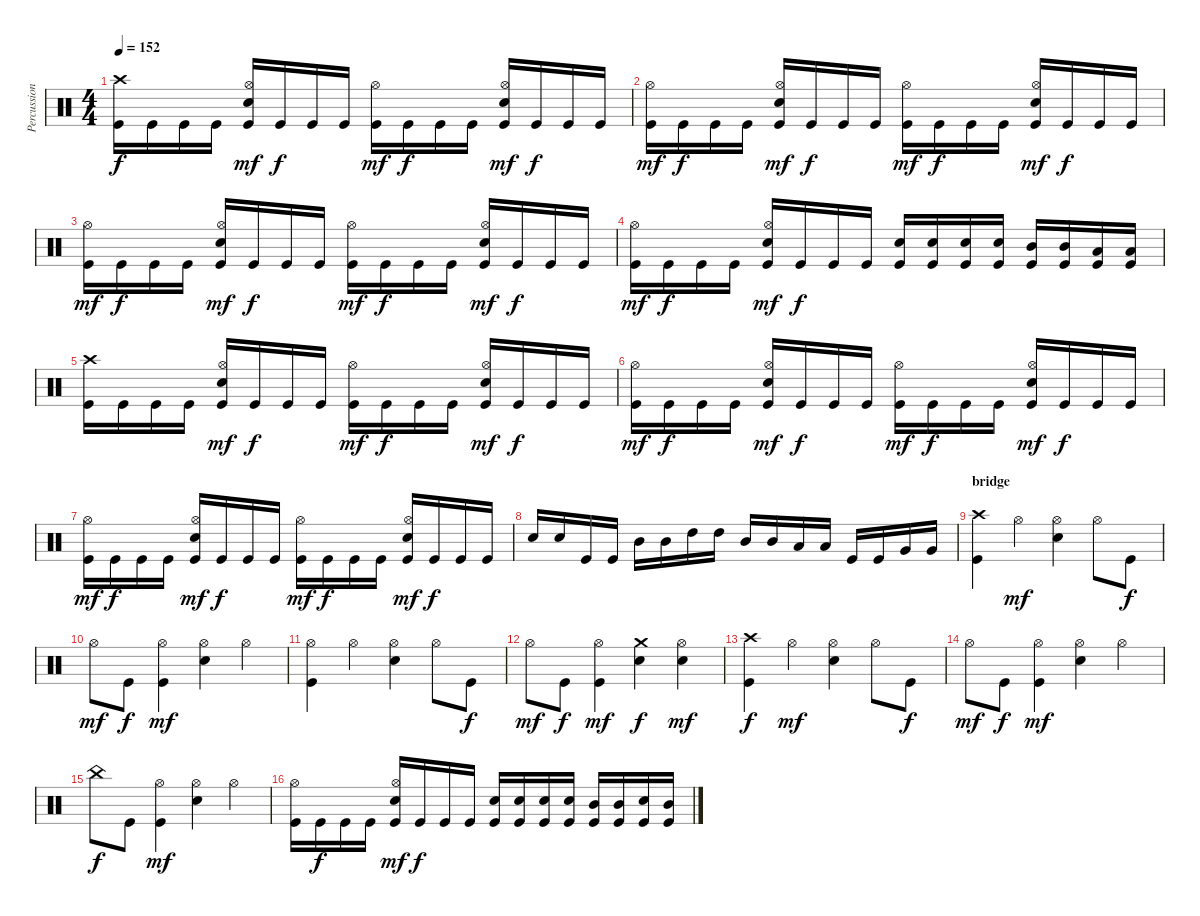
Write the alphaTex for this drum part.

\track ("Percussion" "Percussion") {instrument percussion}
\staff {score}
\articulation defaults
\ts (4 4)
\tempo 152
\clef neutral
\ks c
("Crash high (hit)" "Kick (hit)").16{dy f} "Kick (hit)".16 "Kick (hit)".16 "Kick (hit)".16 ("Hi-Hat (open)" "Snare (hit) 2" "Kick (hit)").16{dy mf} "Kick (hit)".16{dy f} "Kick (hit)".16 "Kick (hit)".16 ("Hi-Hat (open)" "Kick (hit)").16{dy mf} "Kick (hit)".16{dy f} "Kick (hit)".16 "Kick (hit)".16 ("Hi-Hat (open)" "Snare (hit) 2" "Kick (hit)").16{dy mf} "Kick (hit)".16{dy f} "Kick (hit)".16 "Kick (hit)".16 |
("Hi-Hat (open)" "Kick (hit)").16{dy mf} "Kick (hit)".16{dy f} "Kick (hit)".16 "Kick (hit)".16 ("Hi-Hat (open)" "Snare (hit) 2" "Kick (hit)").16{dy mf} "Kick (hit)".16{dy f} "Kick (hit)".16 "Kick (hit)".16 ("Hi-Hat (open)" "Kick (hit)").16{dy mf} "Kick (hit)".16{dy f} "Kick (hit)".16 "Kick (hit)".16 ("Hi-Hat (open)" "Snare (hit) 2" "Kick (hit)").16{dy mf} "Kick (hit)".16{dy f} "Kick (hit)".16 "Kick (hit)".16 |
("Hi-Hat (open)" "Kick (hit)").16{dy mf} "Kick (hit)".16{dy f} "Kick (hit)".16 "Kick (hit)".16 ("Hi-Hat (open)" "Snare (hit) 2" "Kick (hit)").16{dy mf} "Kick (hit)".16{dy f} "Kick (hit)".16 "Kick (hit)".16 ("Hi-Hat (open)" "Kick (hit)").16{dy mf} "Kick (hit)".16{dy f} "Kick (hit)".16 "Kick (hit)".16 ("Hi-Hat (open)" "Snare (hit) 2" "Kick (hit)").16{dy mf} "Kick (hit)".16{dy f} "Kick (hit)".16 "Kick (hit)".16 |
("Hi-Hat (open)" "Kick (hit)").16{dy mf} "Kick (hit)".16{dy f} "Kick (hit)".16 "Kick (hit)".16 ("Hi-Hat (open)" "Snare (hit) 2" "Kick (hit)").16{dy mf} "Kick (hit)".16{dy f} "Kick (hit)".16 "Kick (hit)".16 ("Snare (hit) 2" "Kick (hit)").16 ("Snare (hit) 2" "Kick (hit)").16 ("Snare (hit) 2" "Kick (hit)").16 ("Snare (hit) 2" "Kick (hit)").16 ("Mid Tom (hit)" "Kick (hit)").16 ("Mid Tom (hit)" "Kick (hit)").16 ("Low Tom (hit)" "Kick (hit)").16 ("Low Tom (hit)" "Kick (hit)").16 |
("Crash high (hit)" "Kick (hit)").16 "Kick (hit)".16 "Kick (hit)".16 "Kick (hit)".16 ("Hi-Hat (open)" "Snare (hit) 2" "Kick (hit)").16{dy mf} "Kick (hit)".16{dy f} "Kick (hit)".16 "Kick (hit)".16 ("Hi-Hat (open)" "Kick (hit)").16{dy mf} "Kick (hit)".16{dy f} "Kick (hit)".16 "Kick (hit)".16 ("Hi-Hat (open)" "Snare (hit) 2" "Kick (hit)").16{dy mf} "Kick (hit)".16{dy f} "Kick (hit)".16 "Kick (hit)".16 |
("Hi-Hat (open)" "Kick (hit)").16{dy mf} "Kick (hit)".16{dy f} "Kick (hit)".16 "Kick (hit)".16 ("Hi-Hat (open)" "Snare (hit) 2" "Kick (hit)").16{dy mf} "Kick (hit)".16{dy f} "Kick (hit)".16 "Kick (hit)".16 ("Hi-Hat (open)" "Kick (hit)").16{dy mf} "Kick (hit)".16{dy f} "Kick (hit)".16 "Kick (hit)".16 ("Hi-Hat (open)" "Snare (hit) 2" "Kick (hit)").16{dy mf} "Kick (hit)".16{dy f} "Kick (hit)".16 "Kick (hit)".16 |
("Hi-Hat (open)" "Kick (hit)").16{dy mf} "Kick (hit)".16{dy f} "Kick (hit)".16 "Kick (hit)".16 ("Hi-Hat (open)" "Snare (hit) 2" "Kick (hit)").16{dy mf} "Kick (hit)".16{dy f} "Kick (hit)".16 "Kick (hit)".16 ("Hi-Hat (open)" "Kick (hit)").16{dy mf} "Kick (hit)".16{dy f} "Kick (hit)".16 "Kick (hit)".16 ("Hi-Hat (open)" "Snare (hit) 2" "Kick (hit)").16{dy mf} "Kick (hit)".16{dy f} "Kick (hit)".16 "Kick (hit)".16 |
"Snare (hit) 2".16 "Snare (hit) 2".16 "Kick (hit)".16 "Kick (hit)".16 "Mid Tom (hit)".16 "Mid Tom (hit)".16 "High Tom (hit)".16 "High Tom (hit)".16 "Mid Tom (hit)".16 "Mid Tom (hit)".16 "Low Tom (hit)".16 "Low Tom (hit)".16 "Kick (hit)".16 "Kick (hit)".16 "Very Low Tom (hit)".16 "Very Low Tom (hit)".16 |
\section ("" "bridge")
("Crash high (hit)" "Kick (hit)").4 "Hi-Hat (open)".4{dy mf} ("Hi-Hat (open)" "Snare (hit) 2").4 "Hi-Hat (open)".8 "Kick (hit)".8{dy f} |
"Hi-Hat (open)".8{dy mf} "Kick (hit)".8{dy f} ("Hi-Hat (open)" "Kick (hit)").4{dy mf} ("Hi-Hat (open)" "Snare (hit) 2").4 "Hi-Hat (open)".4 |
("Hi-Hat (open)" "Kick (hit)").4 "Hi-Hat (open)".4 ("Hi-Hat (open)" "Snare (hit) 2").4 "Hi-Hat (open)".8 "Kick (hit)".8{dy f} |
"Hi-Hat (open)".8{dy mf} "Kick (hit)".8{dy f} ("Hi-Hat (open)" "Kick (hit)").4{dy mf} ("Crash medium (hit)" "Snare (hit) 2").4{dy f} ("Hi-Hat (open)" "Snare (hit) 2").4{dy mf} |
("Crash high (hit)" "Kick (hit)").4{dy f} "Hi-Hat (open)".4{dy mf} ("Hi-Hat (open)" "Snare (hit) 2").4 "Hi-Hat (open)".8 "Kick (hit)".8{dy f} |
"Hi-Hat (open)".8{dy mf} "Kick (hit)".8{dy f} ("Hi-Hat (open)" "Kick (hit)").4{dy mf} ("Hi-Hat (open)" "Snare (hit) 2").4 "Hi-Hat (open)".4 |
"China (hit)".8{dy f} "Kick (hit)".8 ("Hi-Hat (open)" "Kick (hit)").4{dy mf} ("Hi-Hat (open)" "Snare (hit) 2").4 "Hi-Hat (open)".4 |
("Hi-Hat (open)" "Kick (hit)").16 "Kick (hit)".16{dy f} "Kick (hit)".16 "Kick (hit)".16 ("Hi-Hat (open)" "Snare (hit) 2" "Kick (hit)").16{dy mf} "Kick (hit)".16{dy f} "Kick (hit)".16 "Kick (hit)".16 ("Snare (hit) 2" "Kick (hit)").16 ("Snare (hit) 2" "Kick (hit)").16 ("Snare (hit) 2" "Kick (hit)").16 ("Snare (hit) 2" "Kick (hit)").16 ("Mid Tom (hit)" "Kick (hit)").16 ("Mid Tom (hit)" "Kick (hit)").16 ("Snare (hit) 2" "Kick (hit)").16 ("Mid Tom (hit)" "Kick (hit)").16
